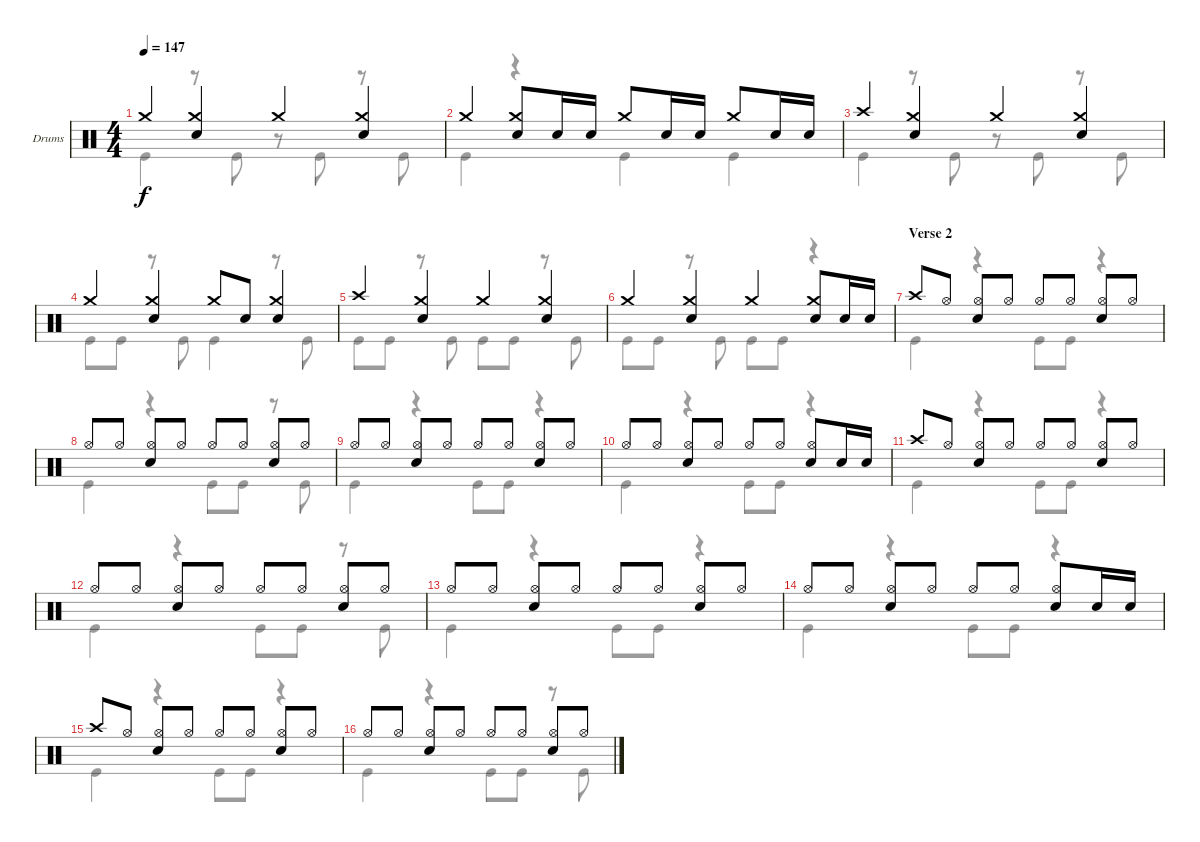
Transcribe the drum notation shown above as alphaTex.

\defaultSystemsLayout 4
\bracketExtendMode groupsimilarinstruments
\firstSystemTrackNameOrientation horizontal
\otherSystemsTrackNameOrientation horizontal
\track ("Drums" "Drums") {instrument percussion}
\staff {score}
\articulation defaults
\voice
\ts (4 4)
\tempo 147
\clef neutral
\ks c "Crash medium (hit)".4{dy f}
("Crash medium (hit)" "Snare (hit) 2").4 "Crash medium (hit)".4 ("Crash medium (hit)" "Snare (hit) 2").4 |
"Crash medium (hit)".4 ("Crash medium (hit)" "Snare (hit) 2").8 "Snare (hit) 2".16 "Snare (hit) 2".16 "Crash medium (hit)".8 "Snare (hit) 2".16 "Snare (hit) 2".16 "Crash medium (hit)".8 "Snare (hit) 2".16 "Snare (hit) 2".16 |
"Crash high (hit)".4 ("Crash medium (hit)" "Snare (hit) 2").4 "Crash medium (hit)".4 ("Crash medium (hit)" "Snare (hit) 2").4 |
"Crash medium (hit)".4 ("Crash medium (hit)" "Snare (hit) 2").4 "Crash medium (hit)".8 "Snare (hit) 2".8 ("Crash medium (hit)" "Snare (hit) 2").4 |
"Crash high (hit)".4 ("Crash medium (hit)" "Snare (hit) 2").4 "Crash medium (hit)".4 ("Crash medium (hit)" "Snare (hit) 2").4 |
"Crash medium (hit)".4 ("Crash medium (hit)" "Snare (hit) 2").4 "Crash medium (hit)".4 ("Crash medium (hit)" "Snare (hit) 2").8 "Snare (hit) 2".16 "Snare (hit) 2".16 |
\section ("" "Verse 2")
"Crash high (hit)".8 "Hi-Hat (open)".8 ("Hi-Hat (open)" "Snare (hit) 2").8 "Hi-Hat (open)".8 "Hi-Hat (open)".8 "Hi-Hat (open)".8 ("Hi-Hat (open)" "Snare (hit) 2").8 "Hi-Hat (open)".8 |
"Hi-Hat (open)".8 "Hi-Hat (open)".8 ("Hi-Hat (open)" "Snare (hit) 2").8 "Hi-Hat (open)".8 "Hi-Hat (open)".8 "Hi-Hat (open)".8 ("Hi-Hat (open)" "Snare (hit) 2").8 "Hi-Hat (open)".8 |
"Hi-Hat (open)".8 "Hi-Hat (open)".8 ("Hi-Hat (open)" "Snare (hit) 2").8 "Hi-Hat (open)".8 "Hi-Hat (open)".8 "Hi-Hat (open)".8 ("Hi-Hat (open)" "Snare (hit) 2").8 "Hi-Hat (open)".8 |
"Hi-Hat (open)".8 "Hi-Hat (open)".8 ("Hi-Hat (open)" "Snare (hit) 2").8 "Hi-Hat (open)".8 "Hi-Hat (open)".8 "Hi-Hat (open)".8 ("Hi-Hat (open)" "Snare (hit) 2").8 "Snare (hit) 2".16 "Snare (hit) 2".16 |
"Crash high (hit)".8 "Hi-Hat (open)".8 ("Hi-Hat (open)" "Snare (hit) 2").8 "Hi-Hat (open)".8 "Hi-Hat (open)".8 "Hi-Hat (open)".8 ("Hi-Hat (open)" "Snare (hit) 2").8 "Hi-Hat (open)".8 |
"Hi-Hat (open)".8 "Hi-Hat (open)".8 ("Hi-Hat (open)" "Snare (hit) 2").8 "Hi-Hat (open)".8 "Hi-Hat (open)".8 "Hi-Hat (open)".8 ("Hi-Hat (open)" "Snare (hit) 2").8 "Hi-Hat (open)".8 |
"Hi-Hat (open)".8 "Hi-Hat (open)".8 ("Hi-Hat (open)" "Snare (hit) 2").8 "Hi-Hat (open)".8 "Hi-Hat (open)".8 "Hi-Hat (open)".8 ("Hi-Hat (open)" "Snare (hit) 2").8 "Hi-Hat (open)".8 |
"Hi-Hat (open)".8 "Hi-Hat (open)".8 ("Hi-Hat (open)" "Snare (hit) 2").8 "Hi-Hat (open)".8 "Hi-Hat (open)".8 "Hi-Hat (open)".8 ("Hi-Hat (open)" "Snare (hit) 2").8 "Snare (hit) 2".16 "Snare (hit) 2".16 |
"Crash high (hit)".8 "Hi-Hat (open)".8 ("Hi-Hat (open)" "Snare (hit) 2").8 "Hi-Hat (open)".8 "Hi-Hat (open)".8 "Hi-Hat (open)".8 ("Hi-Hat (open)" "Snare (hit) 2").8 "Hi-Hat (open)".8 |
"Hi-Hat (open)".8 "Hi-Hat (open)".8 ("Hi-Hat (open)" "Snare (hit) 2").8 "Hi-Hat (open)".8 "Hi-Hat (open)".8 "Hi-Hat (open)".8 ("Hi-Hat (open)" "Snare (hit) 2").8 "Hi-Hat (open)".8
\voice
\clef neutral
\ottava regular
\simile none
\ks c "Kick (hit)".4{dy f}
r.8 "Kick (hit)".8 r.8 "Kick (hit)".8 r.8 "Kick (hit)".8 |
"Kick (hit)".4 r.4 "Kick (hit)".4 "Kick (hit)".4 |
"Kick (hit)".4 r.8 "Kick (hit)".8 r.8 "Kick (hit)".8 r.8 "Kick (hit)".8 |
"Kick (hit)".8 "Kick (hit)".8 r.8 "Kick (hit)".8 "Kick (hit)".4 r.8 "Kick (hit)".8 |
"Kick (hit)".8 "Kick (hit)".8 r.8 "Kick (hit)".8 "Kick (hit)".8 "Kick (hit)".8 r.8 "Kick (hit)".8 |
"Kick (hit)".8 "Kick (hit)".8 r.8 "Kick (hit)".8 "Kick (hit)".8 "Kick (hit)".8 r.4 |
"Kick (hit)".4 r.4 "Kick (hit)".8 "Kick (hit)".8 r.4 |
"Kick (hit)".4 r.4 "Kick (hit)".8 "Kick (hit)".8 r.8 "Kick (hit)".8 |
"Kick (hit)".4 r.4 "Kick (hit)".8 "Kick (hit)".8 r.4 |
"Kick (hit)".4 r.4 "Kick (hit)".8 "Kick (hit)".8 r.4 |
"Kick (hit)".4 r.4 "Kick (hit)".8 "Kick (hit)".8 r.4 |
"Kick (hit)".4 r.4 "Kick (hit)".8 "Kick (hit)".8 r.8 "Kick (hit)".8 |
"Kick (hit)".4 r.4 "Kick (hit)".8 "Kick (hit)".8 r.4 |
"Kick (hit)".4 r.4 "Kick (hit)".8 "Kick (hit)".8 r.4 |
"Kick (hit)".4 r.4 "Kick (hit)".8 "Kick (hit)".8 r.4 |
"Kick (hit)".4 r.4 "Kick (hit)".8 "Kick (hit)".8 r.8 "Kick (hit)".8
